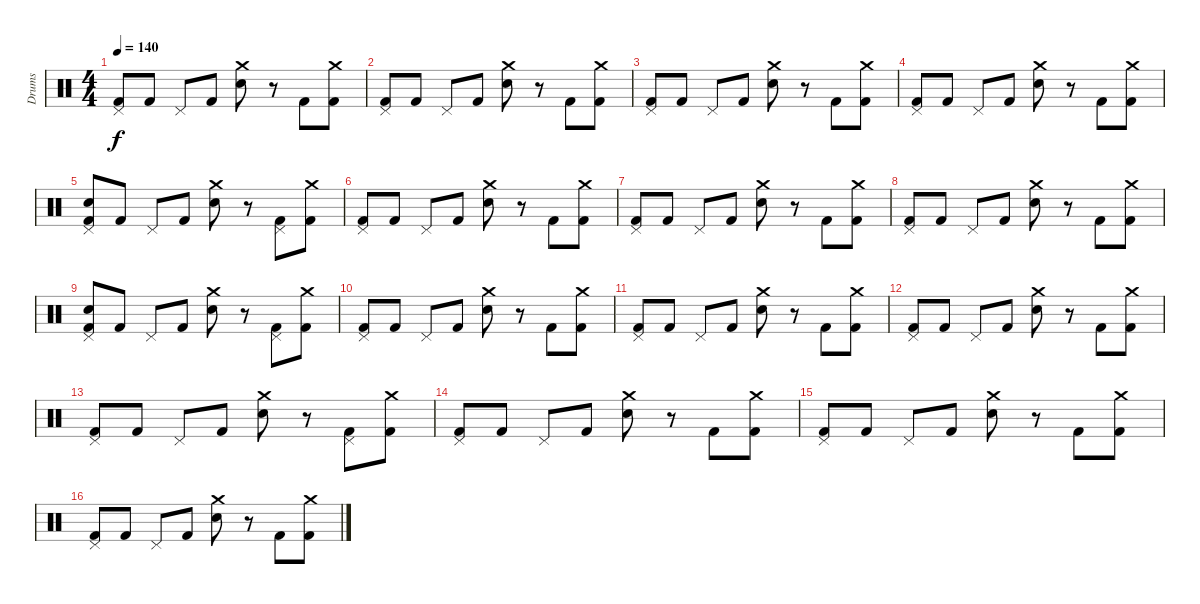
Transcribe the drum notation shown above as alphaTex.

\track ("Drums" "Drums") {instrument percussion}
\staff {score}
\articulation defaults
\ts (4 4)
\tempo 140
\clef neutral
\ks c
("Pedal Hi-Hat (hit)" "Kick (hit) 2").8{dy f} "Kick (hit) 2".8 "Pedal Hi-Hat (hit)".8 "Kick (hit) 2".8 ("Crash medium (hit)" "Snare (hit) 2").8 r.8 "Kick (hit) 2".8 ("Crash medium (hit)" "Kick (hit) 2").8 |
("Pedal Hi-Hat (hit)" "Kick (hit) 2").8 "Kick (hit) 2".8 "Pedal Hi-Hat (hit)".8 "Kick (hit) 2".8 ("Crash medium (hit)" "Snare (hit) 2").8 r.8 "Kick (hit) 2".8 ("Crash medium (hit)" "Kick (hit) 2").8 |
("Pedal Hi-Hat (hit)" "Kick (hit) 2").8 "Kick (hit) 2".8 "Pedal Hi-Hat (hit)".8 "Kick (hit) 2".8 ("Crash medium (hit)" "Snare (hit) 2").8 r.8 "Kick (hit) 2".8 ("Crash medium (hit)" "Kick (hit) 2").8 |
("Pedal Hi-Hat (hit)" "Kick (hit) 2").8 "Kick (hit) 2".8 "Pedal Hi-Hat (hit)".8 "Kick (hit) 2".8 ("Crash medium (hit)" "Snare (hit) 2").8 r.8 "Kick (hit) 2".8 ("Crash medium (hit)" "Kick (hit) 2").8 |
("Pedal Hi-Hat (hit)" "Snare (hit) 2" "Kick (hit) 2").8 "Kick (hit) 2".8 "Pedal Hi-Hat (hit)".8 "Kick (hit) 2".8 ("Crash medium (hit)" "Snare (hit) 2").8 r.8 ("Pedal Hi-Hat (hit)" "Kick (hit) 2").8 ("Crash medium (hit)" "Kick (hit) 2").8 |
("Pedal Hi-Hat (hit)" "Kick (hit) 2").8 "Kick (hit) 2".8 "Pedal Hi-Hat (hit)".8 "Kick (hit) 2".8 ("Crash medium (hit)" "Snare (hit) 2").8 r.8 "Kick (hit) 2".8 ("Crash medium (hit)" "Kick (hit) 2").8 |
("Pedal Hi-Hat (hit)" "Kick (hit) 2").8 "Kick (hit) 2".8 "Pedal Hi-Hat (hit)".8 "Kick (hit) 2".8 ("Crash medium (hit)" "Snare (hit) 2").8 r.8 "Kick (hit) 2".8 ("Crash medium (hit)" "Kick (hit) 2").8 |
("Pedal Hi-Hat (hit)" "Kick (hit) 2").8 "Kick (hit) 2".8 "Pedal Hi-Hat (hit)".8 "Kick (hit) 2".8 ("Crash medium (hit)" "Snare (hit) 2").8 r.8 "Kick (hit) 2".8 ("Crash medium (hit)" "Kick (hit) 2").8 |
("Pedal Hi-Hat (hit)" "Snare (hit) 2" "Kick (hit) 2").8 "Kick (hit) 2".8 "Pedal Hi-Hat (hit)".8 "Kick (hit) 2".8 ("Crash medium (hit)" "Snare (hit) 2").8 r.8 ("Pedal Hi-Hat (hit)" "Kick (hit) 2").8 ("Crash medium (hit)" "Kick (hit) 2").8 |
("Pedal Hi-Hat (hit)" "Kick (hit) 2").8 "Kick (hit) 2".8 "Pedal Hi-Hat (hit)".8 "Kick (hit) 2".8 ("Crash medium (hit)" "Snare (hit) 2").8 r.8 "Kick (hit) 2".8 ("Crash medium (hit)" "Kick (hit) 2").8 |
("Pedal Hi-Hat (hit)" "Kick (hit) 2").8 "Kick (hit) 2".8 "Pedal Hi-Hat (hit)".8 "Kick (hit) 2".8 ("Crash medium (hit)" "Snare (hit) 2").8 r.8 "Kick (hit) 2".8 ("Crash medium (hit)" "Kick (hit) 2").8 |
("Pedal Hi-Hat (hit)" "Kick (hit) 2").8 "Kick (hit) 2".8 "Pedal Hi-Hat (hit)".8 "Kick (hit) 2".8 ("Crash medium (hit)" "Snare (hit) 2").8 r.8 "Kick (hit) 2".8 ("Crash medium (hit)" "Kick (hit) 2").8 |
("Pedal Hi-Hat (hit)" "Kick (hit) 2").8 "Kick (hit) 2".8 "Pedal Hi-Hat (hit)".8 "Kick (hit) 2".8 ("Crash medium (hit)" "Snare (hit) 2").8 r.8 ("Pedal Hi-Hat (hit)" "Kick (hit) 2").8 ("Crash medium (hit)" "Kick (hit) 2").8 |
("Pedal Hi-Hat (hit)" "Kick (hit) 2").8 "Kick (hit) 2".8 "Pedal Hi-Hat (hit)".8 "Kick (hit) 2".8 ("Crash medium (hit)" "Snare (hit) 2").8 r.8 "Kick (hit) 2".8 ("Crash medium (hit)" "Kick (hit) 2").8 |
("Pedal Hi-Hat (hit)" "Kick (hit) 2").8 "Kick (hit) 2".8 "Pedal Hi-Hat (hit)".8 "Kick (hit) 2".8 ("Crash medium (hit)" "Snare (hit) 2").8 r.8 "Kick (hit) 2".8 ("Crash medium (hit)" "Kick (hit) 2").8 |
("Pedal Hi-Hat (hit)" "Kick (hit) 2").8 "Kick (hit) 2".8 "Pedal Hi-Hat (hit)".8 "Kick (hit) 2".8 ("Crash medium (hit)" "Snare (hit) 2").8 r.8 "Kick (hit) 2".8 ("Crash medium (hit)" "Kick (hit) 2").8
